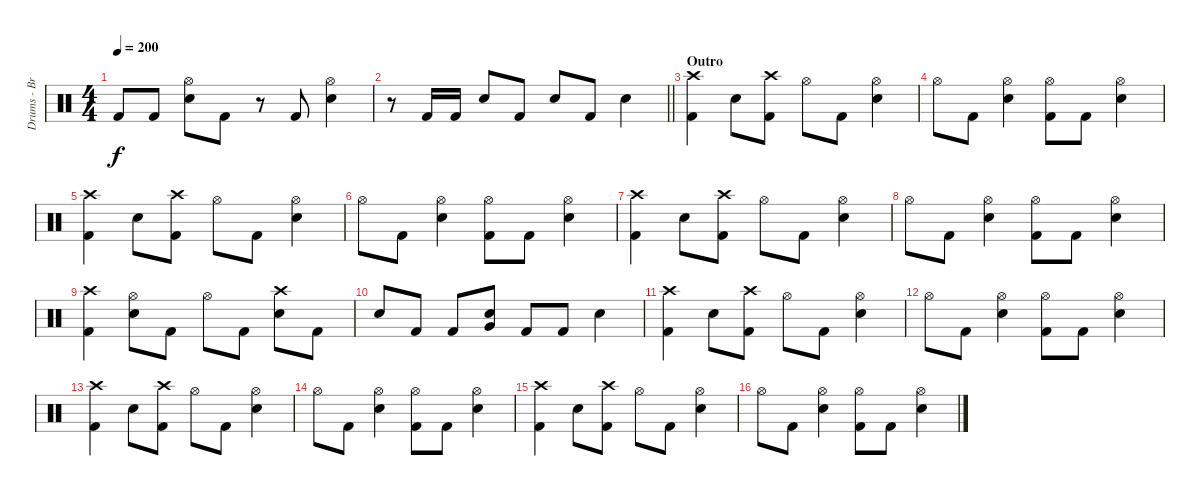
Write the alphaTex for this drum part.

\track ("Drums - Brandon Barnes" "Drums - Br") {instrument percussion}
\staff {score}
\articulation defaults
\ts (4 4)
\tempo 200
\clef neutral
\ks c "Kick (hit) 2".8{dy f} "Kick (hit) 2".8
("Snare (hit) 2" "Hi-Hat (open)").8 "Kick (hit) 2".8 r.8 "Kick (hit) 2".8 ("Snare (hit) 2" "Hi-Hat (open)").4 |
\barLineRight lightlight
r.8 "Kick (hit) 2".16 "Kick (hit) 2".16 "Snare (hit) 2".8 "Kick (hit) 2".8 "Snare (hit) 2".8 "Kick (hit) 2".8 "Snare (hit) 2".4 |
\section ("" "Outro")
("Crash high (hit)" "Kick (hit) 2").4 "Electric Snare (hit)".8 ("Crash high (hit)" "Kick (hit) 2").8 "Hi-Hat (open)".8 "Kick (hit) 2".8 ("Hi-Hat (open)" "Electric Snare (hit)").4 |
"Hi-Hat (open)".8 "Kick (hit) 2".8 ("Hi-Hat (open)" "Electric Snare (hit)").4 ("Hi-Hat (open)" "Kick (hit) 2").8 "Kick (hit) 2".8 ("Hi-Hat (open)" "Electric Snare (hit)").4 |
("Crash high (hit)" "Kick (hit) 2").4 "Electric Snare (hit)".8 ("Crash high (hit)" "Kick (hit) 2").8 "Hi-Hat (open)".8 "Kick (hit) 2".8 ("Hi-Hat (open)" "Electric Snare (hit)").4 |
"Hi-Hat (open)".8 "Kick (hit) 2".8 ("Hi-Hat (open)" "Electric Snare (hit)").4 ("Hi-Hat (open)" "Kick (hit) 2").8 "Kick (hit) 2".8 ("Hi-Hat (open)" "Electric Snare (hit)").4 |
("Crash high (hit)" "Kick (hit) 2").4 "Electric Snare (hit)".8 ("Crash high (hit)" "Kick (hit) 2").8 "Hi-Hat (open)".8 "Kick (hit) 2".8 ("Hi-Hat (open)" "Electric Snare (hit)").4 |
"Hi-Hat (open)".8 "Kick (hit) 2".8 ("Hi-Hat (open)" "Electric Snare (hit)").4 ("Hi-Hat (open)" "Kick (hit) 2").8 "Kick (hit) 2".8 ("Hi-Hat (open)" "Electric Snare (hit)").4 |
("Crash high (hit)" "Kick (hit) 2").4 ("Hi-Hat (open)" "Electric Snare (hit)").8 "Kick (hit) 2".8 "Hi-Hat (open)".8 "Kick (hit) 2".8 ("Crash high (hit)" "Electric Snare (hit)").8 "Kick (hit) 2".8 |
"Electric Snare (hit)".8 "Kick (hit) 2".8 "Kick (hit) 2".8 ("Electric Snare (hit)" "Very Low Tom (hit)").8 "Kick (hit) 2".8 "Kick (hit) 2".8 "Electric Snare (hit)".4 |
("Crash high (hit)" "Kick (hit) 2").4 "Electric Snare (hit)".8 ("Crash high (hit)" "Kick (hit) 2").8 "Hi-Hat (open)".8 "Kick (hit) 2".8 ("Hi-Hat (open)" "Electric Snare (hit)").4 |
"Hi-Hat (open)".8 "Kick (hit) 2".8 ("Hi-Hat (open)" "Electric Snare (hit)").4 ("Hi-Hat (open)" "Kick (hit) 2").8 "Kick (hit) 2".8 ("Hi-Hat (open)" "Electric Snare (hit)").4 |
("Crash high (hit)" "Kick (hit) 2").4 "Electric Snare (hit)".8 ("Crash high (hit)" "Kick (hit) 2").8 "Hi-Hat (open)".8 "Kick (hit) 2".8 ("Hi-Hat (open)" "Electric Snare (hit)").4 |
"Hi-Hat (open)".8 "Kick (hit) 2".8 ("Hi-Hat (open)" "Electric Snare (hit)").4 ("Hi-Hat (open)" "Kick (hit) 2").8 "Kick (hit) 2".8 ("Hi-Hat (open)" "Electric Snare (hit)").4 |
("Crash high (hit)" "Kick (hit) 2").4 "Electric Snare (hit)".8 ("Crash high (hit)" "Kick (hit) 2").8 "Hi-Hat (open)".8 "Kick (hit) 2".8 ("Hi-Hat (open)" "Electric Snare (hit)").4 |
"Hi-Hat (open)".8 "Kick (hit) 2".8 ("Hi-Hat (open)" "Electric Snare (hit)").4 ("Hi-Hat (open)" "Kick (hit) 2").8 "Kick (hit) 2".8 ("Hi-Hat (open)" "Electric Snare (hit)").4
